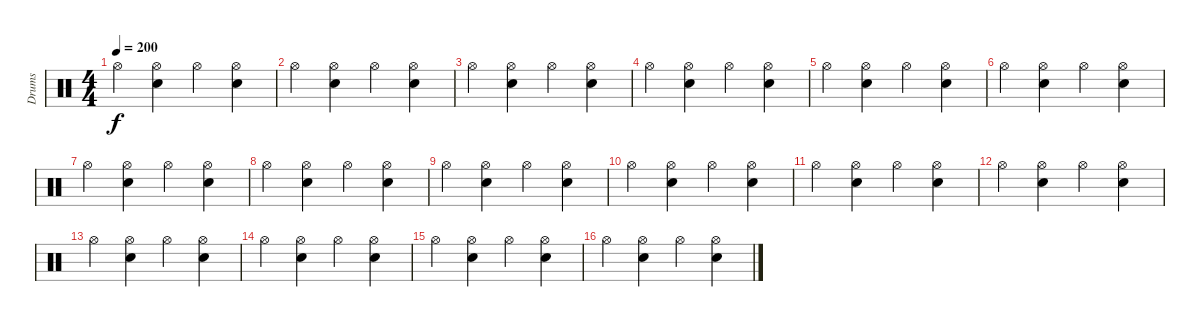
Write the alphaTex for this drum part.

\track ("Drums" "Drums") {instrument percussion}
\staff {score}
\articulation defaults
\ts (4 4)
\tempo 200
\clef neutral
\ks c "Hi-Hat (open)".4{dy f}
("Hi-Hat (open)" "Snare (hit) 2").4 "Hi-Hat (open)".4 ("Hi-Hat (open)" "Snare (hit) 2").4 |
"Hi-Hat (open)".4 ("Hi-Hat (open)" "Snare (hit) 2").4 "Hi-Hat (open)".4 ("Hi-Hat (open)" "Snare (hit) 2").4 |
"Hi-Hat (open)".4 ("Hi-Hat (open)" "Snare (hit) 2").4 "Hi-Hat (open)".4 ("Hi-Hat (open)" "Snare (hit) 2").4 |
"Hi-Hat (open)".4 ("Hi-Hat (open)" "Snare (hit) 2").4 "Hi-Hat (open)".4 ("Hi-Hat (open)" "Snare (hit) 2").4 |
"Hi-Hat (open)".4 ("Hi-Hat (open)" "Snare (hit) 2").4 "Hi-Hat (open)".4 ("Hi-Hat (open)" "Snare (hit) 2").4 |
"Hi-Hat (open)".4 ("Hi-Hat (open)" "Snare (hit) 2").4 "Hi-Hat (open)".4 ("Hi-Hat (open)" "Snare (hit) 2").4 |
"Hi-Hat (open)".4 ("Hi-Hat (open)" "Snare (hit) 2").4 "Hi-Hat (open)".4 ("Hi-Hat (open)" "Snare (hit) 2").4 |
"Hi-Hat (open)".4 ("Hi-Hat (open)" "Snare (hit) 2").4 "Hi-Hat (open)".4 ("Hi-Hat (open)" "Snare (hit) 2").4 |
"Hi-Hat (open)".4 ("Hi-Hat (open)" "Snare (hit) 2").4 "Hi-Hat (open)".4 ("Hi-Hat (open)" "Snare (hit) 2").4 |
"Hi-Hat (open)".4 ("Hi-Hat (open)" "Snare (hit) 2").4 "Hi-Hat (open)".4 ("Hi-Hat (open)" "Snare (hit) 2").4 |
"Hi-Hat (open)".4 ("Hi-Hat (open)" "Snare (hit) 2").4 "Hi-Hat (open)".4 ("Hi-Hat (open)" "Snare (hit) 2").4 |
"Hi-Hat (open)".4 ("Hi-Hat (open)" "Snare (hit) 2").4 "Hi-Hat (open)".4 ("Hi-Hat (open)" "Snare (hit) 2").4 |
"Hi-Hat (open)".4 ("Hi-Hat (open)" "Snare (hit) 2").4 "Hi-Hat (open)".4 ("Hi-Hat (open)" "Snare (hit) 2").4 |
"Hi-Hat (open)".4 ("Hi-Hat (open)" "Snare (hit) 2").4 "Hi-Hat (open)".4 ("Hi-Hat (open)" "Snare (hit) 2").4 |
"Hi-Hat (open)".4 ("Hi-Hat (open)" "Snare (hit) 2").4 "Hi-Hat (open)".4 ("Hi-Hat (open)" "Snare (hit) 2").4 |
"Hi-Hat (open)".4 ("Hi-Hat (open)" "Snare (hit) 2").4 "Hi-Hat (open)".4 ("Hi-Hat (open)" "Snare (hit) 2").4
